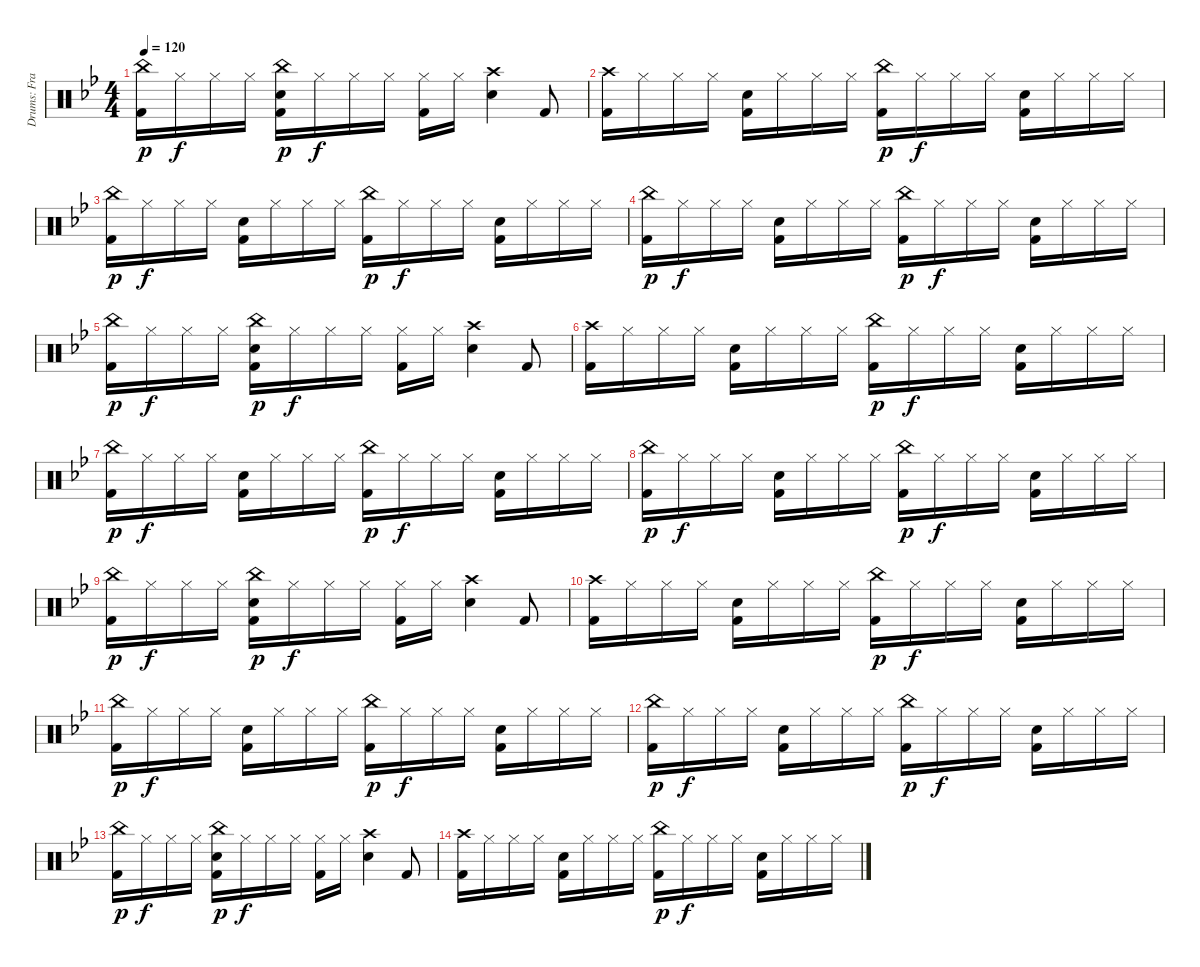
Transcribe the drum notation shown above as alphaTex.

\track ("Drums: Frank" "Drums: Fra") {instrument percussion}
\staff {score}
\articulation defaults
\ts (4 4)
\tempo 120
\clef neutral
\ks bb
("China (hit)" "Kick (hit) 2").16{dy p} "Hi-Hat (closed)".16{dy f} "Hi-Hat (closed)".16 "Hi-Hat (closed)".16 ("China (hit)" "Electric Snare (hit)" "Kick (hit) 2").16{dy p} "Hi-Hat (closed)".16{dy f} "Hi-Hat (closed)".16 "Hi-Hat (closed)".16 ("Hi-Hat (closed)" "Kick (hit) 2").16 "Hi-Hat (closed)".16 ("Crash high (hit)" "Electric Snare (hit)").4 "Kick (hit) 2".8 |
("Crash high (hit)" "Kick (hit) 2").16 "Hi-Hat (closed)".16 "Hi-Hat (closed)".16 "Hi-Hat (closed)".16 ("Electric Snare (hit)" "Kick (hit) 2").16 "Hi-Hat (closed)".16 "Hi-Hat (closed)".16 "Hi-Hat (closed)".16 ("China (hit)" "Kick (hit) 2").16{dy p} "Hi-Hat (closed)".16{dy f} "Hi-Hat (closed)".16 "Hi-Hat (closed)".16 ("Electric Snare (hit)" "Kick (hit) 2").16 "Hi-Hat (closed)".16 "Hi-Hat (closed)".16 "Hi-Hat (closed)".16 |
("China (hit)" "Kick (hit) 2").16{dy p} "Hi-Hat (closed)".16{dy f} "Hi-Hat (closed)".16 "Hi-Hat (closed)".16 ("Electric Snare (hit)" "Kick (hit) 2").16 "Hi-Hat (closed)".16 "Hi-Hat (closed)".16 "Hi-Hat (closed)".16 ("China (hit)" "Kick (hit) 2").16{dy p} "Hi-Hat (closed)".16{dy f} "Hi-Hat (closed)".16 "Hi-Hat (closed)".16 ("Electric Snare (hit)" "Kick (hit) 2").16 "Hi-Hat (closed)".16 "Hi-Hat (closed)".16 "Hi-Hat (closed)".16 |
("China (hit)" "Kick (hit) 2").16{dy p} "Hi-Hat (closed)".16{dy f} "Hi-Hat (closed)".16 "Hi-Hat (closed)".16 ("Electric Snare (hit)" "Kick (hit) 2").16 "Hi-Hat (closed)".16 "Hi-Hat (closed)".16 "Hi-Hat (closed)".16 ("China (hit)" "Kick (hit) 2").16{dy p} "Hi-Hat (closed)".16{dy f} "Hi-Hat (closed)".16 "Hi-Hat (closed)".16 ("Electric Snare (hit)" "Kick (hit) 2").16 "Hi-Hat (closed)".16 "Hi-Hat (closed)".16 "Hi-Hat (closed)".16 |
("China (hit)" "Kick (hit) 2").16{dy p} "Hi-Hat (closed)".16{dy f} "Hi-Hat (closed)".16 "Hi-Hat (closed)".16 ("China (hit)" "Electric Snare (hit)" "Kick (hit) 2").16{dy p} "Hi-Hat (closed)".16{dy f} "Hi-Hat (closed)".16 "Hi-Hat (closed)".16 ("Hi-Hat (closed)" "Kick (hit) 2").16 "Hi-Hat (closed)".16 ("Crash high (hit)" "Electric Snare (hit)").4 "Kick (hit) 2".8 |
("Crash high (hit)" "Kick (hit) 2").16 "Hi-Hat (closed)".16 "Hi-Hat (closed)".16 "Hi-Hat (closed)".16 ("Electric Snare (hit)" "Kick (hit) 2").16 "Hi-Hat (closed)".16 "Hi-Hat (closed)".16 "Hi-Hat (closed)".16 ("China (hit)" "Kick (hit) 2").16{dy p} "Hi-Hat (closed)".16{dy f} "Hi-Hat (closed)".16 "Hi-Hat (closed)".16 ("Electric Snare (hit)" "Kick (hit) 2").16 "Hi-Hat (closed)".16 "Hi-Hat (closed)".16 "Hi-Hat (closed)".16 |
("China (hit)" "Kick (hit) 2").16{dy p} "Hi-Hat (closed)".16{dy f} "Hi-Hat (closed)".16 "Hi-Hat (closed)".16 ("Electric Snare (hit)" "Kick (hit) 2").16 "Hi-Hat (closed)".16 "Hi-Hat (closed)".16 "Hi-Hat (closed)".16 ("China (hit)" "Kick (hit) 2").16{dy p} "Hi-Hat (closed)".16{dy f} "Hi-Hat (closed)".16 "Hi-Hat (closed)".16 ("Electric Snare (hit)" "Kick (hit) 2").16 "Hi-Hat (closed)".16 "Hi-Hat (closed)".16 "Hi-Hat (closed)".16 |
("China (hit)" "Kick (hit) 2").16{dy p} "Hi-Hat (closed)".16{dy f} "Hi-Hat (closed)".16 "Hi-Hat (closed)".16 ("Electric Snare (hit)" "Kick (hit) 2").16 "Hi-Hat (closed)".16 "Hi-Hat (closed)".16 "Hi-Hat (closed)".16 ("China (hit)" "Kick (hit) 2").16{dy p} "Hi-Hat (closed)".16{dy f} "Hi-Hat (closed)".16 "Hi-Hat (closed)".16 ("Electric Snare (hit)" "Kick (hit) 2").16 "Hi-Hat (closed)".16 "Hi-Hat (closed)".16 "Hi-Hat (closed)".16 |
("China (hit)" "Kick (hit) 2").16{dy p} "Hi-Hat (closed)".16{dy f} "Hi-Hat (closed)".16 "Hi-Hat (closed)".16 ("China (hit)" "Electric Snare (hit)" "Kick (hit) 2").16{dy p} "Hi-Hat (closed)".16{dy f} "Hi-Hat (closed)".16 "Hi-Hat (closed)".16 ("Hi-Hat (closed)" "Kick (hit) 2").16 "Hi-Hat (closed)".16 ("Crash high (hit)" "Electric Snare (hit)").4 "Kick (hit) 2".8 |
("Crash high (hit)" "Kick (hit) 2").16 "Hi-Hat (closed)".16 "Hi-Hat (closed)".16 "Hi-Hat (closed)".16 ("Electric Snare (hit)" "Kick (hit) 2").16 "Hi-Hat (closed)".16 "Hi-Hat (closed)".16 "Hi-Hat (closed)".16 ("China (hit)" "Kick (hit) 2").16{dy p} "Hi-Hat (closed)".16{dy f} "Hi-Hat (closed)".16 "Hi-Hat (closed)".16 ("Electric Snare (hit)" "Kick (hit) 2").16 "Hi-Hat (closed)".16 "Hi-Hat (closed)".16 "Hi-Hat (closed)".16 |
("China (hit)" "Kick (hit) 2").16{dy p} "Hi-Hat (closed)".16{dy f} "Hi-Hat (closed)".16 "Hi-Hat (closed)".16 ("Electric Snare (hit)" "Kick (hit) 2").16 "Hi-Hat (closed)".16 "Hi-Hat (closed)".16 "Hi-Hat (closed)".16 ("China (hit)" "Kick (hit) 2").16{dy p} "Hi-Hat (closed)".16{dy f} "Hi-Hat (closed)".16 "Hi-Hat (closed)".16 ("Electric Snare (hit)" "Kick (hit) 2").16 "Hi-Hat (closed)".16 "Hi-Hat (closed)".16 "Hi-Hat (closed)".16 |
("China (hit)" "Kick (hit) 2").16{dy p} "Hi-Hat (closed)".16{dy f} "Hi-Hat (closed)".16 "Hi-Hat (closed)".16 ("Electric Snare (hit)" "Kick (hit) 2").16 "Hi-Hat (closed)".16 "Hi-Hat (closed)".16 "Hi-Hat (closed)".16 ("China (hit)" "Kick (hit) 2").16{dy p} "Hi-Hat (closed)".16{dy f} "Hi-Hat (closed)".16 "Hi-Hat (closed)".16 ("Electric Snare (hit)" "Kick (hit) 2").16 "Hi-Hat (closed)".16 "Hi-Hat (closed)".16 "Hi-Hat (closed)".16 |
("China (hit)" "Kick (hit) 2").16{dy p} "Hi-Hat (closed)".16{dy f} "Hi-Hat (closed)".16 "Hi-Hat (closed)".16 ("China (hit)" "Electric Snare (hit)" "Kick (hit) 2").16{dy p} "Hi-Hat (closed)".16{dy f} "Hi-Hat (closed)".16 "Hi-Hat (closed)".16 ("Hi-Hat (closed)" "Kick (hit) 2").16 "Hi-Hat (closed)".16 ("Crash high (hit)" "Electric Snare (hit)").4 "Kick (hit) 2".8 |
("Crash high (hit)" "Kick (hit) 2").16 "Hi-Hat (closed)".16 "Hi-Hat (closed)".16 "Hi-Hat (closed)".16 ("Electric Snare (hit)" "Kick (hit) 2").16 "Hi-Hat (closed)".16 "Hi-Hat (closed)".16 "Hi-Hat (closed)".16 ("China (hit)" "Kick (hit) 2").16{dy p} "Hi-Hat (closed)".16{dy f} "Hi-Hat (closed)".16 "Hi-Hat (closed)".16 ("Electric Snare (hit)" "Kick (hit) 2").16 "Hi-Hat (closed)".16 "Hi-Hat (closed)".16 "Hi-Hat (closed)".16
